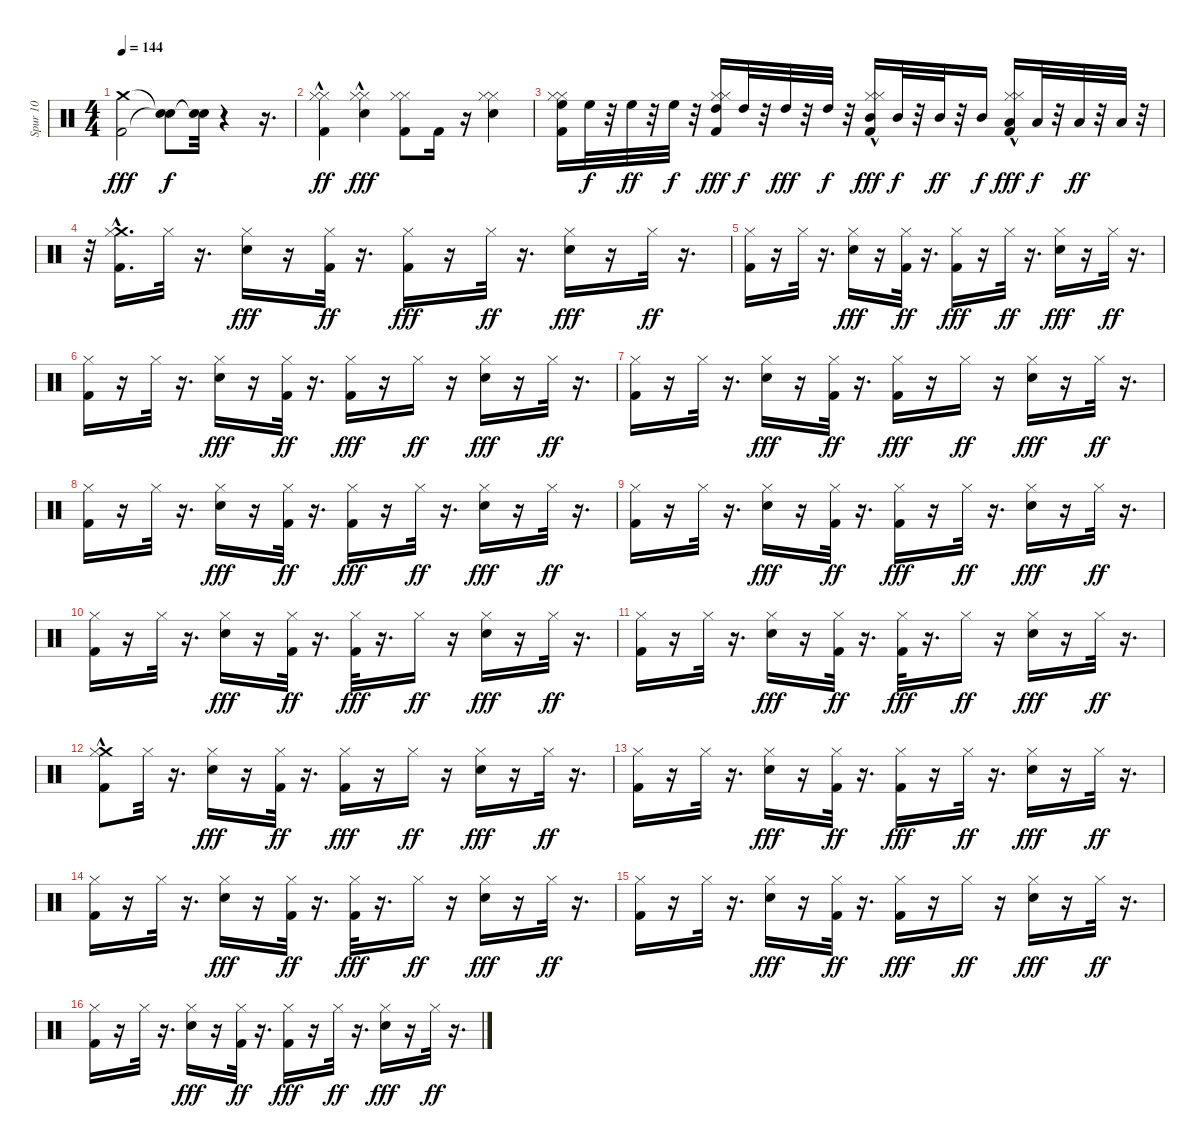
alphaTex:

\track ("Spur 10" "Spur 10") {instrument percussion}
\staff {score}
\articulation defaults
\ts (4 4)
\tempo 144
\clef neutral
\ks c
("Crash medium (hit)" "Kick (hit) 2").2{dy fff} ("Snare (hit)"{t} "Snare (hit)"{t}).8{dy f} ("Snare (hit)"{t} "Snare (hit)"{t}).32 r.4 r.16{d} |
("Hi-Hat (closed)" "Kick (hit) 2"{hac} "Hi-Hat (closed)").4{dy ff} ("Snare (hit) 2"{hac} "Hi-Hat (closed)" "Hi-Hat (closed)").4{dy fff} ("Kick (hit) 2" "Hi-Hat (closed)" "Hi-Hat (closed)").8 "Kick (hit) 2".16 r.16 ("Snare (hit) 2" "Hi-Hat (closed)" "Hi-Hat (closed)").4 |
("Hi-Hat (closed)" "Hi-Hat (closed)" "High Floor Tom (hit)" "Kick (hit) 2").16 "High Floor Tom (hit)".32{dy f} r.32 "High Floor Tom (hit)".32{dy ff} r.32 "High Floor Tom (hit)".32{dy f} r.32 ("Hi-Hat (closed)" "Hi-Hat (closed)" "High Tom (hit)" "Kick (hit) 2").16{dy fff} "High Tom (hit)".32{dy f} r.32 "High Tom (hit)".32{dy fff} r.32 "High Tom (hit)".32{dy f} r.32 ("Mid Tom (hit)" "Hi-Hat (closed)" "Kick (hit) 2"{hac} "Hi-Hat (closed)").16{dy fff} "Mid Tom (hit)".32{dy f} r.32 "Mid Tom (hit)".32{dy ff} r.32 "Mid Tom (hit)".16{dy f} ("Low Tom (hit)" "Kick (hit) 2" "Hi-Hat (closed)"{hac} "Hi-Hat (closed)"{hac}).16{dy fff} "Low Tom (hit)".32{dy f} r.32 "Low Tom (hit)".32{dy ff} r.32 "Low Tom (hit)".32 r.32 |
r.32 ("Crash medium (hit)"{hac} "Kick (hit) 2" "Hi-Hat (closed)").16{d} "Hi-Hat (closed)".32 r.16{d} ("Snare (hit) 2" "Hi-Hat (closed)").16{dy fff} r.16 ("Kick (hit) 2" "Hi-Hat (closed)").32{dy ff} r.16{d} ("Kick (hit) 2" "Hi-Hat (closed)").16{dy fff} r.16 "Hi-Hat (closed)".32{dy ff} r.16{d} ("Snare (hit) 2" "Hi-Hat (closed)").16{dy fff} r.16 "Hi-Hat (closed)".32{dy ff} r.16{d} |
("Kick (hit) 2" "Hi-Hat (closed)").16 r.16 "Hi-Hat (closed)".32 r.16{d} ("Snare (hit) 2" "Hi-Hat (closed)").16{dy fff} r.16 ("Kick (hit) 2" "Hi-Hat (closed)").32{dy ff} r.16{d} ("Kick (hit) 2" "Hi-Hat (closed)").16{dy fff} r.16 "Hi-Hat (closed)".32{dy ff} r.16{d} ("Snare (hit) 2" "Hi-Hat (closed)").16{dy fff} r.16 "Hi-Hat (closed)".32{dy ff} r.16{d} |
("Kick (hit) 2" "Hi-Hat (closed)").16 r.16 "Hi-Hat (closed)".32 r.16{d} ("Snare (hit) 2" "Hi-Hat (closed)").16{dy fff} r.16 ("Kick (hit) 2" "Hi-Hat (closed)").32{dy ff} r.16{d} ("Kick (hit) 2" "Hi-Hat (closed)").16{dy fff} r.16 "Hi-Hat (closed)".16{dy ff} r.16 ("Snare (hit) 2" "Hi-Hat (closed)").16{dy fff} r.16 "Hi-Hat (closed)".32{dy ff} r.16{d} |
("Kick (hit) 2" "Hi-Hat (closed)").16 r.16 "Hi-Hat (closed)".32 r.16{d} ("Snare (hit) 2" "Hi-Hat (closed)").16{dy fff} r.16 ("Kick (hit) 2" "Hi-Hat (closed)").32{dy ff} r.16{d} ("Kick (hit) 2" "Hi-Hat (closed)").16{dy fff} r.16 "Hi-Hat (closed)".16{dy ff} r.16 ("Snare (hit) 2" "Hi-Hat (closed)").16{dy fff} r.16 "Hi-Hat (closed)".32{dy ff} r.16{d} |
("Kick (hit) 2" "Hi-Hat (closed)").16 r.16 "Hi-Hat (closed)".32 r.16{d} ("Snare (hit) 2" "Hi-Hat (closed)").16{dy fff} r.16 ("Kick (hit) 2" "Hi-Hat (closed)").32{dy ff} r.16{d} ("Kick (hit) 2" "Hi-Hat (closed)").16{dy fff} r.16 "Hi-Hat (closed)".32{dy ff} r.16{d} ("Snare (hit) 2" "Hi-Hat (closed)").16{dy fff} r.16 "Hi-Hat (closed)".32{dy ff} r.16{d} |
("Kick (hit) 2" "Hi-Hat (closed)").16 r.16 "Hi-Hat (closed)".32 r.16{d} ("Snare (hit) 2" "Hi-Hat (closed)").16{dy fff} r.16 ("Kick (hit) 2" "Hi-Hat (closed)").32{dy ff} r.16{d} ("Kick (hit) 2" "Hi-Hat (closed)").16{dy fff} r.16 "Hi-Hat (closed)".32{dy ff} r.16{d} ("Snare (hit) 2" "Hi-Hat (closed)").16{dy fff} r.16 "Hi-Hat (closed)".32{dy ff} r.16{d} |
("Kick (hit) 2" "Hi-Hat (closed)").16 r.16 "Hi-Hat (closed)".32 r.16{d} ("Snare (hit) 2" "Hi-Hat (closed)").16{dy fff} r.16 ("Kick (hit) 2" "Hi-Hat (closed)").32{dy ff} r.16{d} ("Kick (hit) 2" "Hi-Hat (closed)").32{dy fff} r.16{d} "Hi-Hat (closed)".16{dy ff} r.16 ("Snare (hit) 2" "Hi-Hat (closed)").16{dy fff} r.16 "Hi-Hat (closed)".32{dy ff} r.16{d} |
("Kick (hit) 2" "Hi-Hat (closed)").16 r.16 "Hi-Hat (closed)".32 r.16{d} ("Snare (hit) 2" "Hi-Hat (closed)").16{dy fff} r.16 ("Kick (hit) 2" "Hi-Hat (closed)").32{dy ff} r.16{d} ("Kick (hit) 2" "Hi-Hat (closed)").32{dy fff} r.16{d} "Hi-Hat (closed)".16{dy ff} r.16 ("Snare (hit) 2" "Hi-Hat (closed)").16{dy fff} r.16 "Hi-Hat (closed)".32{dy ff} r.16{d} |
("Crash medium (hit)"{hac} "Kick (hit) 2" "Hi-Hat (closed)").8 "Hi-Hat (closed)".32 r.16{d} ("Snare (hit) 2" "Hi-Hat (closed)").16{dy fff} r.16 ("Kick (hit) 2" "Hi-Hat (closed)").32{dy ff} r.16{d} ("Kick (hit) 2" "Hi-Hat (closed)").16{dy fff} r.16 "Hi-Hat (closed)".16{dy ff} r.16 ("Snare (hit) 2" "Hi-Hat (closed)").16{dy fff} r.16 "Hi-Hat (closed)".32{dy ff} r.16{d} |
("Kick (hit) 2" "Hi-Hat (closed)").16 r.16 "Hi-Hat (closed)".32 r.16{d} ("Snare (hit) 2" "Hi-Hat (closed)").16{dy fff} r.16 ("Kick (hit) 2" "Hi-Hat (closed)").32{dy ff} r.16{d} ("Kick (hit) 2" "Hi-Hat (closed)").16{dy fff} r.16 "Hi-Hat (closed)".32{dy ff} r.16{d} ("Snare (hit) 2" "Hi-Hat (closed)").16{dy fff} r.16 "Hi-Hat (closed)".32{dy ff} r.16{d} |
("Kick (hit) 2" "Hi-Hat (closed)").16 r.16 "Hi-Hat (closed)".32 r.16{d} ("Snare (hit) 2" "Hi-Hat (closed)").16{dy fff} r.16 ("Kick (hit) 2" "Hi-Hat (closed)").32{dy ff} r.16{d} ("Kick (hit) 2" "Hi-Hat (closed)").32{dy fff} r.16{d} "Hi-Hat (closed)".16{dy ff} r.16 ("Snare (hit) 2" "Hi-Hat (closed)").16{dy fff} r.16 "Hi-Hat (closed)".32{dy ff} r.16{d} |
("Kick (hit) 2" "Hi-Hat (closed)").16 r.16 "Hi-Hat (closed)".32 r.16{d} ("Snare (hit) 2" "Hi-Hat (closed)").16{dy fff} r.16 ("Kick (hit) 2" "Hi-Hat (closed)").32{dy ff} r.16{d} ("Kick (hit) 2" "Hi-Hat (closed)").16{dy fff} r.16 "Hi-Hat (closed)".16{dy ff} r.16 ("Snare (hit) 2" "Hi-Hat (closed)").16{dy fff} r.16 "Hi-Hat (closed)".32{dy ff} r.16{d} |
("Kick (hit) 2" "Hi-Hat (closed)").16 r.16 "Hi-Hat (closed)".32 r.16{d} ("Snare (hit) 2" "Hi-Hat (closed)").16{dy fff} r.16 ("Kick (hit) 2" "Hi-Hat (closed)").32{dy ff} r.16{d} ("Kick (hit) 2" "Hi-Hat (closed)").16{dy fff} r.16 "Hi-Hat (closed)".32{dy ff} r.16{d} ("Snare (hit) 2" "Hi-Hat (closed)").16{dy fff} r.16 "Hi-Hat (closed)".32{dy ff} r.16{d}
